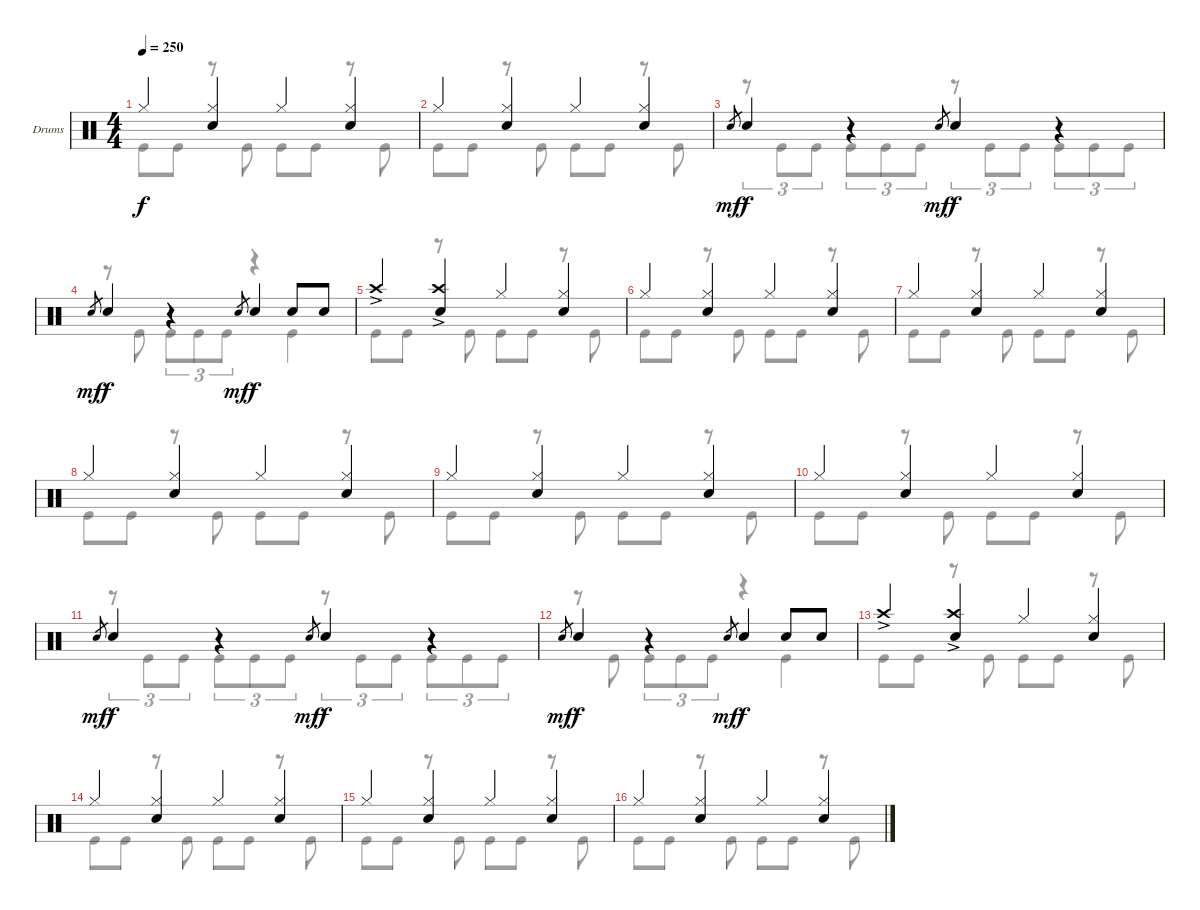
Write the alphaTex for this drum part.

\bracketExtendMode groupsimilarinstruments
\firstSystemTrackNameOrientation horizontal
\otherSystemsTrackNameOrientation horizontal
\track ("Drumkit" "Drums") {instrument percussion}
\staff {score}
\articulation defaults
\voice
\ts (4 4)
\tempo 250
\clef neutral
\ks c "Hi-Hat (closed)".4{dy f}
("Hi-Hat (closed)" "Snare (hit) 2").4 "Hi-Hat (closed)".4 ("Hi-Hat (closed)" "Snare (hit) 2").4 |
"Hi-Hat (closed)".4 ("Hi-Hat (closed)" "Snare (hit) 2").4 "Hi-Hat (closed)".4 ("Hi-Hat (closed)" "Snare (hit) 2").4 |
"Snare (hit) 2".8{gr dy mf} "Snare (hit) 2".4{dy f} r.4 "Snare (hit) 2".8{gr dy mf} "Snare (hit) 2".4{dy f} r.4 |
"Snare (hit) 2".8{gr dy mf} "Snare (hit) 2".4{dy f} r.4 "Snare (hit) 2".8{gr dy mf} "Snare (hit) 2".4{dy f} "Snare (hit) 2".8 "Snare (hit) 2".8 |
"Crash high (hit)"{ac}.4 ("Crash high (hit)"{ac} "Snare (hit) 2").4 "Hi-Hat (closed)".4 ("Hi-Hat (closed)" "Snare (hit) 2").4 |
"Hi-Hat (closed)".4 ("Hi-Hat (closed)" "Snare (hit) 2").4 "Hi-Hat (closed)".4 ("Hi-Hat (closed)" "Snare (hit) 2").4 |
"Hi-Hat (closed)".4 ("Hi-Hat (closed)" "Snare (hit) 2").4 "Hi-Hat (closed)".4 ("Hi-Hat (closed)" "Snare (hit) 2").4 |
"Hi-Hat (closed)".4 ("Hi-Hat (closed)" "Snare (hit) 2").4 "Hi-Hat (closed)".4 ("Hi-Hat (closed)" "Snare (hit) 2").4 |
"Hi-Hat (closed)".4 ("Hi-Hat (closed)" "Snare (hit) 2").4 "Hi-Hat (closed)".4 ("Hi-Hat (closed)" "Snare (hit) 2").4 |
"Hi-Hat (closed)".4 ("Hi-Hat (closed)" "Snare (hit) 2").4 "Hi-Hat (closed)".4 ("Hi-Hat (closed)" "Snare (hit) 2").4 |
"Snare (hit) 2".8{gr dy mf} "Snare (hit) 2".4{dy f} r.4 "Snare (hit) 2".8{gr dy mf} "Snare (hit) 2".4{dy f} r.4 |
"Snare (hit) 2".8{gr dy mf} "Snare (hit) 2".4{dy f} r.4 "Snare (hit) 2".8{gr dy mf} "Snare (hit) 2".4{dy f} "Snare (hit) 2".8 "Snare (hit) 2".8 |
"Crash high (hit)"{ac}.4 ("Crash high (hit)"{ac} "Snare (hit) 2").4 "Hi-Hat (closed)".4 ("Hi-Hat (closed)" "Snare (hit) 2").4 |
"Hi-Hat (closed)".4 ("Hi-Hat (closed)" "Snare (hit) 2").4 "Hi-Hat (closed)".4 ("Hi-Hat (closed)" "Snare (hit) 2").4 |
"Hi-Hat (closed)".4 ("Hi-Hat (closed)" "Snare (hit) 2").4 "Hi-Hat (closed)".4 ("Hi-Hat (closed)" "Snare (hit) 2").4 |
"Hi-Hat (closed)".4 ("Hi-Hat (closed)" "Snare (hit) 2").4 "Hi-Hat (closed)".4 ("Hi-Hat (closed)" "Snare (hit) 2").4
\voice
\clef neutral
\ottava regular
\simile none
\ks c "Kick (hit)".8{dy f} "Kick (hit)".8
r.8 "Kick (hit)".8 "Kick (hit)".8 "Kick (hit)".8 r.8 "Kick (hit)".8 |
"Kick (hit)".8 "Kick (hit)".8 r.8 "Kick (hit)".8 "Kick (hit)".8 "Kick (hit)".8 r.8 "Kick (hit)".8 |
r.8{tu (3 2)} "Kick (hit)".8{tu (3 2)} "Kick (hit)".8{tu (3 2)} "Kick (hit)".8{tu (3 2)} "Kick (hit)".8{tu (3 2)} "Kick (hit)".8{tu (3 2)} r.8{tu (3 2)} "Kick (hit)".8{tu (3 2)} "Kick (hit)".8{tu (3 2)} "Kick (hit)".8{tu (3 2)} "Kick (hit)".8{tu (3 2)} "Kick (hit)".8{tu (3 2)} |
r.8 "Kick (hit)".8 "Kick (hit)".8{tu (3 2)} "Kick (hit)".8{tu (3 2)} "Kick (hit)".8{tu (3 2)} r.4 "Kick (hit)".4 |
"Kick (hit)".8 "Kick (hit)".8 r.8 "Kick (hit)".8 "Kick (hit)".8 "Kick (hit)".8 r.8 "Kick (hit)".8 |
"Kick (hit)".8 "Kick (hit)".8 r.8 "Kick (hit)".8 "Kick (hit)".8 "Kick (hit)".8 r.8 "Kick (hit)".8 |
"Kick (hit)".8 "Kick (hit)".8 r.8 "Kick (hit)".8 "Kick (hit)".8 "Kick (hit)".8 r.8 "Kick (hit)".8 |
"Kick (hit)".8 "Kick (hit)".8 r.8 "Kick (hit)".8 "Kick (hit)".8 "Kick (hit)".8 r.8 "Kick (hit)".8 |
"Kick (hit)".8 "Kick (hit)".8 r.8 "Kick (hit)".8 "Kick (hit)".8 "Kick (hit)".8 r.8 "Kick (hit)".8 |
"Kick (hit)".8 "Kick (hit)".8 r.8 "Kick (hit)".8 "Kick (hit)".8 "Kick (hit)".8 r.8 "Kick (hit)".8 |
r.8{tu (3 2)} "Kick (hit)".8{tu (3 2)} "Kick (hit)".8{tu (3 2)} "Kick (hit)".8{tu (3 2)} "Kick (hit)".8{tu (3 2)} "Kick (hit)".8{tu (3 2)} r.8{tu (3 2)} "Kick (hit)".8{tu (3 2)} "Kick (hit)".8{tu (3 2)} "Kick (hit)".8{tu (3 2)} "Kick (hit)".8{tu (3 2)} "Kick (hit)".8{tu (3 2)} |
r.8 "Kick (hit)".8 "Kick (hit)".8{tu (3 2)} "Kick (hit)".8{tu (3 2)} "Kick (hit)".8{tu (3 2)} r.4 "Kick (hit)".4 |
"Kick (hit)".8 "Kick (hit)".8 r.8 "Kick (hit)".8 "Kick (hit)".8 "Kick (hit)".8 r.8 "Kick (hit)".8 |
"Kick (hit)".8 "Kick (hit)".8 r.8 "Kick (hit)".8 "Kick (hit)".8 "Kick (hit)".8 r.8 "Kick (hit)".8 |
"Kick (hit)".8 "Kick (hit)".8 r.8 "Kick (hit)".8 "Kick (hit)".8 "Kick (hit)".8 r.8 "Kick (hit)".8 |
"Kick (hit)".8 "Kick (hit)".8 r.8 "Kick (hit)".8 "Kick (hit)".8 "Kick (hit)".8 r.8 "Kick (hit)".8
